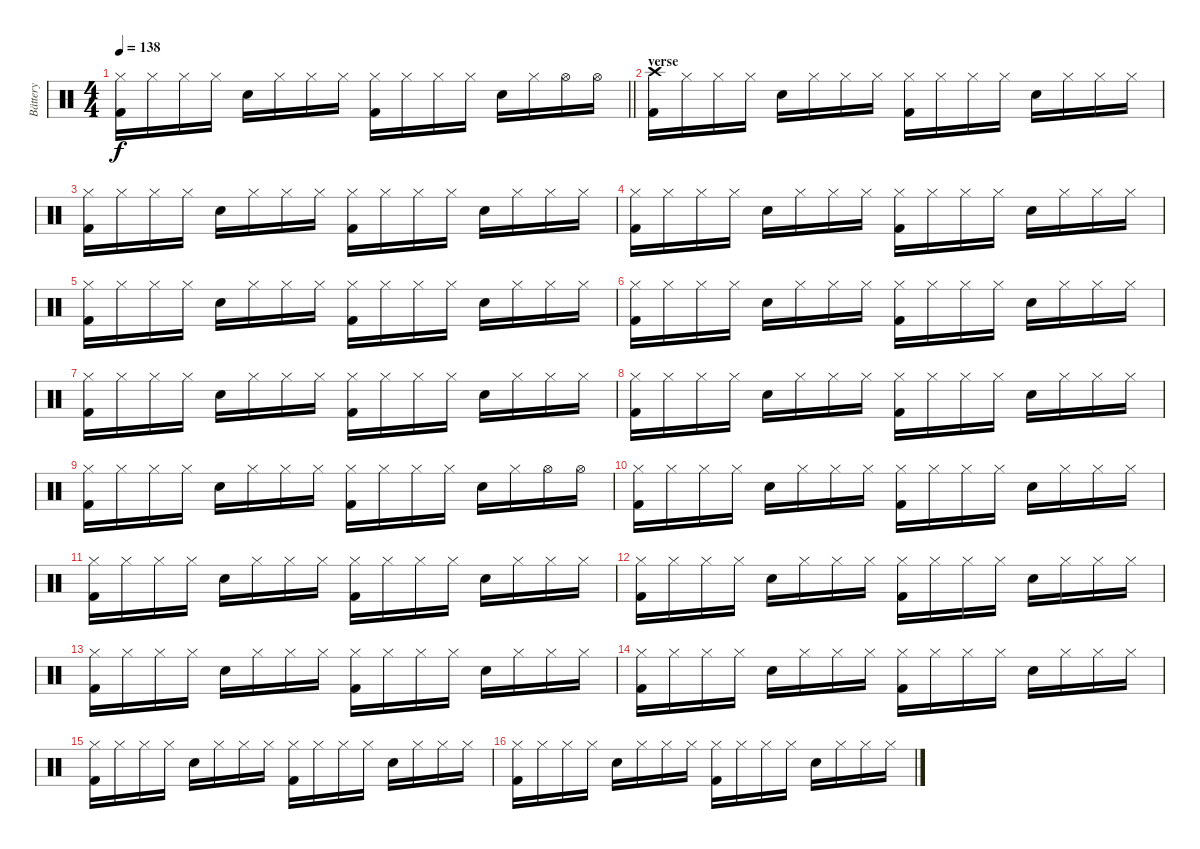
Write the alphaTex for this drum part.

\track ("Bättery" "Bättery") {instrument percussion}
\staff {score}
\articulation defaults
\ts (4 4)
\tempo 138
\clef neutral
\barLineRight lightlight
\ks c
("Hi-Hat (closed)" "Kick (hit) 2").16{dy f} "Hi-Hat (closed)".16 "Hi-Hat (closed)".16 "Hi-Hat (closed)".16 "Electric Snare (hit)".16 "Hi-Hat (closed)".16 "Hi-Hat (closed)".16 "Hi-Hat (closed)".16 ("Hi-Hat (closed)" "Kick (hit) 2").16 "Hi-Hat (closed)".16 "Hi-Hat (closed)".16 "Hi-Hat (closed)".16 "Electric Snare (hit)".16 "Hi-Hat (closed)".16 "Hi-Hat (open)".16 "Hi-Hat (open)".16 |
\section ("" "verse")
("Crash high (hit)" "Kick (hit) 2").16 "Hi-Hat (closed)".16 "Hi-Hat (closed)".16 "Hi-Hat (closed)".16 "Electric Snare (hit)".16 "Hi-Hat (closed)".16 "Hi-Hat (closed)".16 "Hi-Hat (closed)".16 ("Hi-Hat (closed)" "Kick (hit) 2").16 "Hi-Hat (closed)".16 "Hi-Hat (closed)".16 "Hi-Hat (closed)".16 "Electric Snare (hit)".16 "Hi-Hat (closed)".16 "Hi-Hat (closed)".16 "Hi-Hat (closed)".16 |
("Hi-Hat (closed)" "Kick (hit) 2").16 "Hi-Hat (closed)".16 "Hi-Hat (closed)".16 "Hi-Hat (closed)".16 "Electric Snare (hit)".16 "Hi-Hat (closed)".16 "Hi-Hat (closed)".16 "Hi-Hat (closed)".16 ("Hi-Hat (closed)" "Kick (hit) 2").16 "Hi-Hat (closed)".16 "Hi-Hat (closed)".16 "Hi-Hat (closed)".16 "Electric Snare (hit)".16 "Hi-Hat (closed)".16 "Hi-Hat (closed)".16 "Hi-Hat (closed)".16 |
("Hi-Hat (closed)" "Kick (hit) 2").16 "Hi-Hat (closed)".16 "Hi-Hat (closed)".16 "Hi-Hat (closed)".16 "Electric Snare (hit)".16 "Hi-Hat (closed)".16 "Hi-Hat (closed)".16 "Hi-Hat (closed)".16 ("Hi-Hat (closed)" "Kick (hit) 2").16 "Hi-Hat (closed)".16 "Hi-Hat (closed)".16 "Hi-Hat (closed)".16 "Electric Snare (hit)".16 "Hi-Hat (closed)".16 "Hi-Hat (closed)".16 "Hi-Hat (closed)".16 |
("Hi-Hat (closed)" "Kick (hit) 2").16 "Hi-Hat (closed)".16 "Hi-Hat (closed)".16 "Hi-Hat (closed)".16 "Electric Snare (hit)".16 "Hi-Hat (closed)".16 "Hi-Hat (closed)".16 "Hi-Hat (closed)".16 ("Hi-Hat (closed)" "Kick (hit) 2").16 "Hi-Hat (closed)".16 "Hi-Hat (closed)".16 "Hi-Hat (closed)".16 "Electric Snare (hit)".16 "Hi-Hat (closed)".16 "Hi-Hat (closed)".16 "Hi-Hat (closed)".16 |
("Hi-Hat (closed)" "Kick (hit) 2").16 "Hi-Hat (closed)".16 "Hi-Hat (closed)".16 "Hi-Hat (closed)".16 "Electric Snare (hit)".16 "Hi-Hat (closed)".16 "Hi-Hat (closed)".16 "Hi-Hat (closed)".16 ("Hi-Hat (closed)" "Kick (hit) 2").16 "Hi-Hat (closed)".16 "Hi-Hat (closed)".16 "Hi-Hat (closed)".16 "Electric Snare (hit)".16 "Hi-Hat (closed)".16 "Hi-Hat (closed)".16 "Hi-Hat (closed)".16 |
("Hi-Hat (closed)" "Kick (hit) 2").16 "Hi-Hat (closed)".16 "Hi-Hat (closed)".16 "Hi-Hat (closed)".16 "Electric Snare (hit)".16 "Hi-Hat (closed)".16 "Hi-Hat (closed)".16 "Hi-Hat (closed)".16 ("Hi-Hat (closed)" "Kick (hit) 2").16 "Hi-Hat (closed)".16 "Hi-Hat (closed)".16 "Hi-Hat (closed)".16 "Electric Snare (hit)".16 "Hi-Hat (closed)".16 "Hi-Hat (closed)".16 "Hi-Hat (closed)".16 |
("Hi-Hat (closed)" "Kick (hit) 2").16 "Hi-Hat (closed)".16 "Hi-Hat (closed)".16 "Hi-Hat (closed)".16 "Electric Snare (hit)".16 "Hi-Hat (closed)".16 "Hi-Hat (closed)".16 "Hi-Hat (closed)".16 ("Hi-Hat (closed)" "Kick (hit) 2").16 "Hi-Hat (closed)".16 "Hi-Hat (closed)".16 "Hi-Hat (closed)".16 "Electric Snare (hit)".16 "Hi-Hat (closed)".16 "Hi-Hat (closed)".16 "Hi-Hat (closed)".16 |
("Hi-Hat (closed)" "Kick (hit) 2").16 "Hi-Hat (closed)".16 "Hi-Hat (closed)".16 "Hi-Hat (closed)".16 "Electric Snare (hit)".16 "Hi-Hat (closed)".16 "Hi-Hat (closed)".16 "Hi-Hat (closed)".16 ("Hi-Hat (closed)" "Kick (hit) 2").16 "Hi-Hat (closed)".16 "Hi-Hat (closed)".16 "Hi-Hat (closed)".16 "Electric Snare (hit)".16 "Hi-Hat (closed)".16 "Hi-Hat (open)".16 "Hi-Hat (open)".16 |
("Hi-Hat (closed)" "Kick (hit) 2").16 "Hi-Hat (closed)".16 "Hi-Hat (closed)".16 "Hi-Hat (closed)".16 "Electric Snare (hit)".16 "Hi-Hat (closed)".16 "Hi-Hat (closed)".16 "Hi-Hat (closed)".16 ("Hi-Hat (closed)" "Kick (hit) 2").16 "Hi-Hat (closed)".16 "Hi-Hat (closed)".16 "Hi-Hat (closed)".16 "Electric Snare (hit)".16 "Hi-Hat (closed)".16 "Hi-Hat (closed)".16 "Hi-Hat (closed)".16 |
("Hi-Hat (closed)" "Kick (hit) 2").16 "Hi-Hat (closed)".16 "Hi-Hat (closed)".16 "Hi-Hat (closed)".16 "Electric Snare (hit)".16 "Hi-Hat (closed)".16 "Hi-Hat (closed)".16 "Hi-Hat (closed)".16 ("Hi-Hat (closed)" "Kick (hit) 2").16 "Hi-Hat (closed)".16 "Hi-Hat (closed)".16 "Hi-Hat (closed)".16 "Electric Snare (hit)".16 "Hi-Hat (closed)".16 "Hi-Hat (closed)".16 "Hi-Hat (closed)".16 |
("Hi-Hat (closed)" "Kick (hit) 2").16 "Hi-Hat (closed)".16 "Hi-Hat (closed)".16 "Hi-Hat (closed)".16 "Electric Snare (hit)".16 "Hi-Hat (closed)".16 "Hi-Hat (closed)".16 "Hi-Hat (closed)".16 ("Hi-Hat (closed)" "Kick (hit) 2").16 "Hi-Hat (closed)".16 "Hi-Hat (closed)".16 "Hi-Hat (closed)".16 "Electric Snare (hit)".16 "Hi-Hat (closed)".16 "Hi-Hat (closed)".16 "Hi-Hat (closed)".16 |
("Hi-Hat (closed)" "Kick (hit) 2").16 "Hi-Hat (closed)".16 "Hi-Hat (closed)".16 "Hi-Hat (closed)".16 "Electric Snare (hit)".16 "Hi-Hat (closed)".16 "Hi-Hat (closed)".16 "Hi-Hat (closed)".16 ("Hi-Hat (closed)" "Kick (hit) 2").16 "Hi-Hat (closed)".16 "Hi-Hat (closed)".16 "Hi-Hat (closed)".16 "Electric Snare (hit)".16 "Hi-Hat (closed)".16 "Hi-Hat (closed)".16 "Hi-Hat (closed)".16 |
("Hi-Hat (closed)" "Kick (hit) 2").16 "Hi-Hat (closed)".16 "Hi-Hat (closed)".16 "Hi-Hat (closed)".16 "Electric Snare (hit)".16 "Hi-Hat (closed)".16 "Hi-Hat (closed)".16 "Hi-Hat (closed)".16 ("Hi-Hat (closed)" "Kick (hit) 2").16 "Hi-Hat (closed)".16 "Hi-Hat (closed)".16 "Hi-Hat (closed)".16 "Electric Snare (hit)".16 "Hi-Hat (closed)".16 "Hi-Hat (closed)".16 "Hi-Hat (closed)".16 |
("Hi-Hat (closed)" "Kick (hit) 2").16 "Hi-Hat (closed)".16 "Hi-Hat (closed)".16 "Hi-Hat (closed)".16 "Electric Snare (hit)".16 "Hi-Hat (closed)".16 "Hi-Hat (closed)".16 "Hi-Hat (closed)".16 ("Hi-Hat (closed)" "Kick (hit) 2").16 "Hi-Hat (closed)".16 "Hi-Hat (closed)".16 "Hi-Hat (closed)".16 "Electric Snare (hit)".16 "Hi-Hat (closed)".16 "Hi-Hat (closed)".16 "Hi-Hat (closed)".16 |
("Hi-Hat (closed)" "Kick (hit) 2").16 "Hi-Hat (closed)".16 "Hi-Hat (closed)".16 "Hi-Hat (closed)".16 "Electric Snare (hit)".16 "Hi-Hat (closed)".16 "Hi-Hat (closed)".16 "Hi-Hat (closed)".16 ("Hi-Hat (closed)" "Kick (hit) 2").16 "Hi-Hat (closed)".16 "Hi-Hat (closed)".16 "Hi-Hat (closed)".16 "Electric Snare (hit)".16 "Hi-Hat (closed)".16 "Hi-Hat (closed)".16 "Hi-Hat (closed)".16
